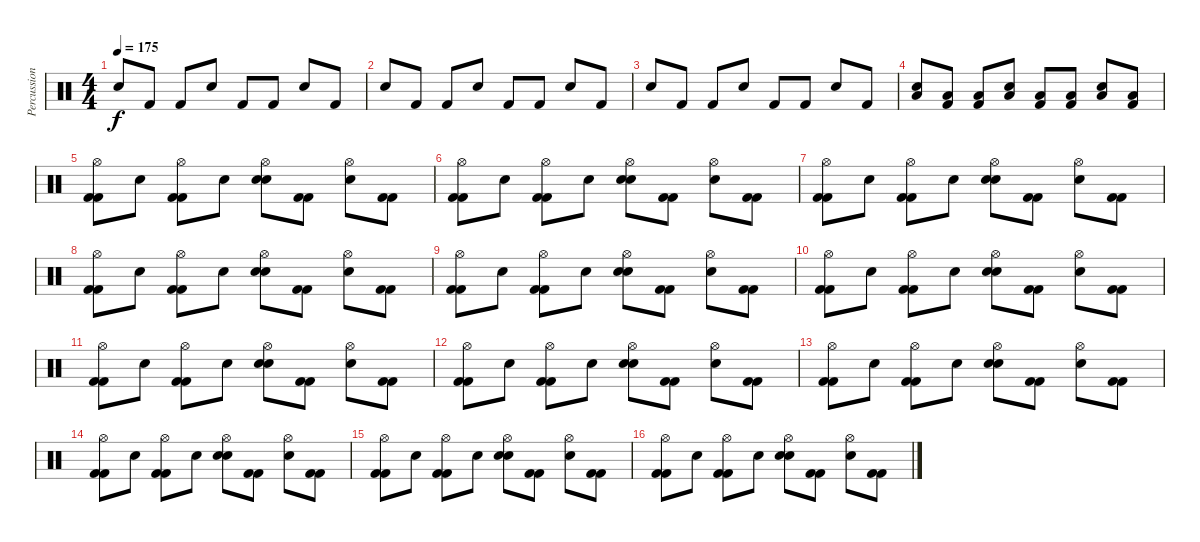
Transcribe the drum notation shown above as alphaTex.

\track ("Percussion" "Percussion") {instrument percussion}
\staff {score}
\articulation defaults
\ts (4 4)
\tempo 175
\clef neutral
\ks c "Electric Snare (hit)".8{dy f} "Kick (hit) 2".8 "Kick (hit) 2".8 "Electric Snare (hit)".8 "Kick (hit) 2".8 "Kick (hit) 2".8 "Electric Snare (hit)".8 "Kick (hit) 2".8
|
"Electric Snare (hit)".8 "Kick (hit) 2".8 "Kick (hit) 2".8 "Electric Snare (hit)".8 "Kick (hit) 2".8 "Kick (hit) 2".8 "Electric Snare (hit)".8 "Kick (hit) 2".8 |
"Electric Snare (hit)".8 "Kick (hit) 2".8 "Kick (hit) 2".8 "Electric Snare (hit)".8 "Kick (hit) 2".8 "Kick (hit) 2".8 "Electric Snare (hit)".8 "Kick (hit) 2".8 |
("Low Floor Tom (hit)" "Electric Snare (hit)").8 ("Low Floor Tom (hit)" "Kick (hit) 2").8 ("Low Floor Tom (hit)" "Kick (hit) 2").8 ("Low Tom (hit)" "Electric Snare (hit)").8 ("Low Tom (hit)" "Kick (hit) 2").8 ("Low Tom (hit)" "Kick (hit) 2").8 ("Low Tom (hit)" "Electric Snare (hit)").8 ("Low Tom (hit)" "Kick (hit) 2").8 |
("Hi-Hat (open)" "Kick (hit) 2" "Kick (hit) 2").8 "Snare (hit)".8 ("Hi-Hat (open)" "Kick (hit) 2" "Kick (hit) 2").8 "Snare (hit)".8 ("Hi-Hat (open)" "Electric Snare (hit)" "Electric Snare (hit)").8 ("Kick (hit) 2" "Kick (hit) 2").8 ("Hi-Hat (open)" "Snare (hit)").8 ("Kick (hit) 2" "Kick (hit) 2").8 |
("Hi-Hat (open)" "Kick (hit) 2" "Kick (hit) 2").8 "Snare (hit)".8 ("Hi-Hat (open)" "Kick (hit) 2" "Kick (hit) 2").8 "Snare (hit)".8 ("Hi-Hat (open)" "Electric Snare (hit)" "Electric Snare (hit)").8 ("Kick (hit) 2" "Kick (hit) 2").8 ("Hi-Hat (open)" "Snare (hit)").8 ("Kick (hit) 2" "Kick (hit) 2").8 |
("Hi-Hat (open)" "Kick (hit) 2" "Kick (hit) 2").8 "Snare (hit)".8 ("Hi-Hat (open)" "Kick (hit) 2" "Kick (hit) 2").8 "Snare (hit)".8 ("Hi-Hat (open)" "Electric Snare (hit)" "Electric Snare (hit)").8 ("Kick (hit) 2" "Kick (hit) 2").8 ("Hi-Hat (open)" "Snare (hit)").8 ("Kick (hit) 2" "Kick (hit) 2").8 |
("Hi-Hat (open)" "Kick (hit) 2" "Kick (hit) 2").8 "Snare (hit)".8 ("Hi-Hat (open)" "Kick (hit) 2" "Kick (hit) 2").8 "Snare (hit)".8 ("Hi-Hat (open)" "Electric Snare (hit)" "Electric Snare (hit)").8 ("Kick (hit) 2" "Kick (hit) 2").8 ("Hi-Hat (open)" "Snare (hit)").8 ("Kick (hit) 2" "Kick (hit) 2").8 |
("Hi-Hat (open)" "Kick (hit) 2" "Kick (hit) 2").8 "Snare (hit)".8 ("Hi-Hat (open)" "Kick (hit) 2" "Kick (hit) 2").8 "Snare (hit)".8 ("Hi-Hat (open)" "Electric Snare (hit)" "Electric Snare (hit)").8 ("Kick (hit) 2" "Kick (hit) 2").8 ("Hi-Hat (open)" "Snare (hit)").8 ("Kick (hit) 2" "Kick (hit) 2").8 |
("Hi-Hat (open)" "Kick (hit) 2" "Kick (hit) 2").8 "Snare (hit)".8 ("Hi-Hat (open)" "Kick (hit) 2" "Kick (hit) 2").8 "Snare (hit)".8 ("Hi-Hat (open)" "Electric Snare (hit)" "Electric Snare (hit)").8 ("Kick (hit) 2" "Kick (hit) 2").8 ("Hi-Hat (open)" "Snare (hit)").8 ("Kick (hit) 2" "Kick (hit) 2").8 |
("Hi-Hat (open)" "Kick (hit) 2" "Kick (hit) 2").8 "Snare (hit)".8 ("Hi-Hat (open)" "Kick (hit) 2" "Kick (hit) 2").8 "Snare (hit)".8 ("Hi-Hat (open)" "Electric Snare (hit)" "Electric Snare (hit)").8 ("Kick (hit) 2" "Kick (hit) 2").8 ("Hi-Hat (open)" "Snare (hit)").8 ("Kick (hit) 2" "Kick (hit) 2").8 |
("Hi-Hat (open)" "Kick (hit) 2" "Kick (hit) 2").8 "Snare (hit)".8 ("Hi-Hat (open)" "Kick (hit) 2" "Kick (hit) 2").8 "Snare (hit)".8 ("Hi-Hat (open)" "Electric Snare (hit)" "Electric Snare (hit)").8 ("Kick (hit) 2" "Kick (hit) 2").8 ("Hi-Hat (open)" "Snare (hit)").8 ("Kick (hit) 2" "Kick (hit) 2").8 |
("Hi-Hat (open)" "Kick (hit) 2" "Kick (hit) 2").8 "Snare (hit)".8 ("Hi-Hat (open)" "Kick (hit) 2" "Kick (hit) 2").8 "Snare (hit)".8 ("Hi-Hat (open)" "Electric Snare (hit)" "Electric Snare (hit)").8 ("Kick (hit) 2" "Kick (hit) 2").8 ("Hi-Hat (open)" "Snare (hit)").8 ("Kick (hit) 2" "Kick (hit) 2").8 |
("Hi-Hat (open)" "Kick (hit) 2" "Kick (hit) 2").8 "Snare (hit)".8 ("Hi-Hat (open)" "Kick (hit) 2" "Kick (hit) 2").8 "Snare (hit)".8 ("Hi-Hat (open)" "Electric Snare (hit)" "Electric Snare (hit)").8 ("Kick (hit) 2" "Kick (hit) 2").8 ("Hi-Hat (open)" "Snare (hit)").8 ("Kick (hit) 2" "Kick (hit) 2").8 |
("Hi-Hat (open)" "Kick (hit) 2" "Kick (hit) 2").8 "Snare (hit)".8 ("Hi-Hat (open)" "Kick (hit) 2" "Kick (hit) 2").8 "Snare (hit)".8 ("Hi-Hat (open)" "Electric Snare (hit)" "Electric Snare (hit)").8 ("Kick (hit) 2" "Kick (hit) 2").8 ("Hi-Hat (open)" "Snare (hit)").8 ("Kick (hit) 2" "Kick (hit) 2").8 |
("Hi-Hat (open)" "Kick (hit) 2" "Kick (hit) 2").8 "Snare (hit)".8 ("Hi-Hat (open)" "Kick (hit) 2" "Kick (hit) 2").8 "Snare (hit)".8 ("Hi-Hat (open)" "Electric Snare (hit)" "Electric Snare (hit)").8 ("Kick (hit) 2" "Kick (hit) 2").8 ("Hi-Hat (open)" "Snare (hit)").8 ("Kick (hit) 2" "Kick (hit) 2").8
